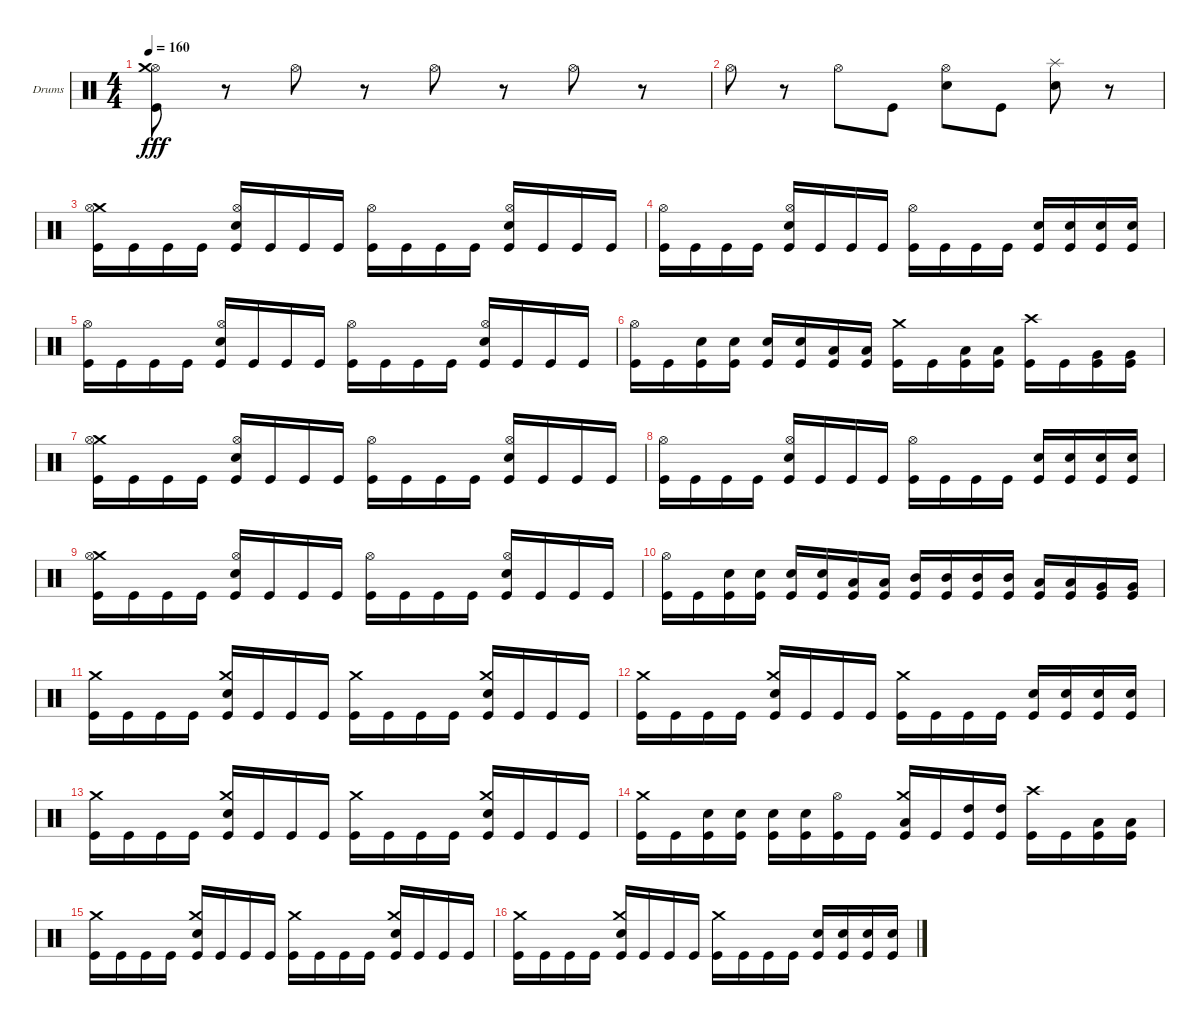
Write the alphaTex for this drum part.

\bracketExtendMode groupsimilarinstruments
\firstSystemTrackNameOrientation horizontal
\otherSystemsTrackNameOrientation horizontal
\track ("Drums" "Drums") {instrument percussion}
\staff {score}
\articulation defaults
\ts (4 4)
\tempo 160
\clef neutral
\ks c
("Kick (hit)" "Hi-Hat (open)" "Crash medium (hit)").8{dy fff} r.8 "Hi-Hat (open)".8 r.8 "Hi-Hat (open)".8 r.8 "Hi-Hat (open)".8 r.8 |
"Hi-Hat (open)".8 r.8 "Hi-Hat (open)".8 "Kick (hit)".8 ("Hi-Hat (open)" "Snare (hit) 2").8 "Kick (hit)".8 ("Splash (hit)" "Snare (hit) 2").8 r.8 |
("Kick (hit)" "Crash medium (hit)" "Hi-Hat (open)").16 "Kick (hit)".16 "Kick (hit)".16 "Kick (hit)".16 ("Kick (hit)" "Snare (hit) 2" "Hi-Hat (open)").16 "Kick (hit)".16 "Kick (hit)".16 "Kick (hit)".16 ("Kick (hit)" "Hi-Hat (open)").16 "Kick (hit)".16 "Kick (hit)".16 "Kick (hit)".16 ("Kick (hit)" "Snare (hit) 2" "Hi-Hat (open)").16 "Kick (hit)".16 "Kick (hit)".16 "Kick (hit)".16 |
("Kick (hit)" "Hi-Hat (open)").16 "Kick (hit)".16 "Kick (hit)".16 "Kick (hit)".16 ("Kick (hit)" "Snare (hit) 2" "Hi-Hat (open)").16 "Kick (hit)".16 "Kick (hit)".16 "Kick (hit)".16 ("Kick (hit)" "Hi-Hat (open)").16 "Kick (hit)".16 "Kick (hit)".16 "Kick (hit)".16 ("Kick (hit)" "Snare (hit) 2").16 ("Kick (hit)" "Snare (hit) 2").16 ("Kick (hit)" "Snare (hit) 2").16 ("Kick (hit)" "Snare (hit) 2").16 |
("Hi-Hat (open)" "Kick (hit)").16 "Kick (hit)".16 "Kick (hit)".16 "Kick (hit)".16 ("Hi-Hat (open)" "Snare (hit) 2" "Kick (hit)").16 "Kick (hit)".16 "Kick (hit)".16 "Kick (hit)".16 ("Hi-Hat (open)" "Kick (hit)").16 "Kick (hit)".16 "Kick (hit)".16 "Kick (hit)".16 ("Hi-Hat (open)" "Snare (hit) 2" "Kick (hit)").16 "Kick (hit)".16 "Kick (hit)".16 "Kick (hit)".16 |
("Hi-Hat (open)" "Kick (hit)").16 "Kick (hit)".16 ("Snare (hit) 2" "Kick (hit)").16 ("Snare (hit) 2" "Kick (hit)").16 ("Snare (hit) 2" "Kick (hit)").16 ("Snare (hit) 2" "Kick (hit)").16 ("Low Tom (hit)" "Kick (hit)").16 ("Low Tom (hit)" "Kick (hit)").16 ("Crash medium (hit)" "Kick (hit)").16 "Kick (hit)".16 ("Low Tom (hit)" "Kick (hit)").16 ("Low Tom (hit)" "Kick (hit)").16 ("Crash high (hit)" "Kick (hit)").16 "Kick (hit)".16 ("Very Low Tom (hit)" "Kick (hit)").16 ("Very Low Tom (hit)" "Kick (hit)").16 |
("Kick (hit)" "Crash medium (hit)" "Hi-Hat (open)").16 "Kick (hit)".16 "Kick (hit)".16 "Kick (hit)".16 ("Kick (hit)" "Snare (hit) 2" "Hi-Hat (open)").16 "Kick (hit)".16 "Kick (hit)".16 "Kick (hit)".16 ("Kick (hit)" "Hi-Hat (open)").16 "Kick (hit)".16 "Kick (hit)".16 "Kick (hit)".16 ("Kick (hit)" "Snare (hit) 2" "Hi-Hat (open)").16 "Kick (hit)".16 "Kick (hit)".16 "Kick (hit)".16 |
("Kick (hit)" "Hi-Hat (open)").16 "Kick (hit)".16 "Kick (hit)".16 "Kick (hit)".16 ("Kick (hit)" "Hi-Hat (open)" "Snare (hit) 2").16 "Kick (hit)".16 "Kick (hit)".16 "Kick (hit)".16 ("Kick (hit)" "Hi-Hat (open)").16 "Kick (hit)".16 "Kick (hit)".16 "Kick (hit)".16 ("Kick (hit)" "Snare (hit) 2").16 ("Kick (hit)" "Snare (hit) 2").16 ("Kick (hit)" "Snare (hit) 2").16 ("Kick (hit)" "Snare (hit) 2").16 |
("Kick (hit)" "Crash medium (hit)" "Hi-Hat (open)").16 "Kick (hit)".16 "Kick (hit)".16 "Kick (hit)".16 ("Kick (hit)" "Snare (hit) 2" "Hi-Hat (open)").16 "Kick (hit)".16 "Kick (hit)".16 "Kick (hit)".16 ("Kick (hit)" "Hi-Hat (open)").16 "Kick (hit)".16 "Kick (hit)".16 "Kick (hit)".16 ("Kick (hit)" "Snare (hit) 2" "Hi-Hat (open)").16 "Kick (hit)".16 "Kick (hit)".16 "Kick (hit)".16 |
("Kick (hit)" "Hi-Hat (open)").16 "Kick (hit)".16 ("Kick (hit)" "Snare (hit) 2").16 ("Kick (hit)" "Snare (hit) 2").16 ("Kick (hit)" "Snare (hit) 2").16 ("Kick (hit)" "Snare (hit) 2").16 ("Kick (hit)" "Low Tom (hit)").16 ("Kick (hit)" "Low Tom (hit)").16 ("Kick (hit)" "Mid Tom (hit)").16 ("Kick (hit)" "Mid Tom (hit)").16 ("Kick (hit)" "Mid Tom (hit)").16 ("Kick (hit)" "Mid Tom (hit)").16 ("Kick (hit)" "Low Tom (hit)").16 ("Kick (hit)" "Low Tom (hit)").16 ("Kick (hit)" "Very Low Tom (hit)").16 ("Kick (hit)" "Very Low Tom (hit)").16 |
("Kick (hit)" "Crash medium (hit)").16 "Kick (hit)".16 "Kick (hit)".16 "Kick (hit)".16 ("Kick (hit)" "Snare (hit) 2" "Crash medium (hit)").16 "Kick (hit)".16 "Kick (hit)".16 "Kick (hit)".16 ("Kick (hit)" "Crash medium (hit)").16 "Kick (hit)".16 "Kick (hit)".16 "Kick (hit)".16 ("Kick (hit)" "Snare (hit) 2" "Crash medium (hit)").16 "Kick (hit)".16 "Kick (hit)".16 "Kick (hit)".16 |
("Kick (hit)" "Crash medium (hit)").16 "Kick (hit)".16 "Kick (hit)".16 "Kick (hit)".16 ("Snare (hit) 2" "Kick (hit)" "Crash medium (hit)").16 "Kick (hit)".16 "Kick (hit)".16 "Kick (hit)".16 ("Kick (hit)" "Crash medium (hit)").16 "Kick (hit)".16 "Kick (hit)".16 "Kick (hit)".16 ("Kick (hit)" "Snare (hit) 2").16 ("Kick (hit)" "Snare (hit) 2").16 ("Kick (hit)" "Snare (hit) 2").16 ("Kick (hit)" "Snare (hit) 2").16 |
("Crash medium (hit)" "Kick (hit)").16 "Kick (hit)".16 "Kick (hit)".16 "Kick (hit)".16 ("Crash medium (hit)" "Snare (hit) 2" "Kick (hit)").16 "Kick (hit)".16 "Kick (hit)".16 "Kick (hit)".16 ("Crash medium (hit)" "Kick (hit)").16 "Kick (hit)".16 "Kick (hit)".16 "Kick (hit)".16 ("Crash medium (hit)" "Snare (hit) 2" "Kick (hit)").16 "Kick (hit)".16 "Kick (hit)".16 "Kick (hit)".16 |
("Crash medium (hit)" "Kick (hit)").16 "Kick (hit)".16 ("Snare (hit) 2" "Kick (hit)").16 ("Snare (hit) 2" "Kick (hit)").16 ("Snare (hit) 2" "Kick (hit)").16 ("Snare (hit) 2" "Kick (hit)").16 ("Hi-Hat (open)" "Kick (hit)").16 "Kick (hit)".16 ("Crash medium (hit)" "Kick (hit)" "Low Tom (hit)").16 "Kick (hit)".16 ("High Tom (hit)" "Kick (hit)").16 ("High Tom (hit)" "Kick (hit)").16 ("Kick (hit)" "Crash high (hit)").16 "Kick (hit)".16 ("Low Tom (hit)" "Kick (hit)").16 ("Low Tom (hit)" "Kick (hit)").16 |
("Crash medium (hit)" "Kick (hit)").16 "Kick (hit)".16 "Kick (hit)".16 "Kick (hit)".16 ("Crash medium (hit)" "Snare (hit) 2" "Kick (hit)").16 "Kick (hit)".16 "Kick (hit)".16 "Kick (hit)".16 ("Crash medium (hit)" "Kick (hit)").16 "Kick (hit)".16 "Kick (hit)".16 "Kick (hit)".16 ("Crash medium (hit)" "Kick (hit)" "Snare (hit) 2").16 "Kick (hit)".16 "Kick (hit)".16 "Kick (hit)".16 |
("Crash medium (hit)" "Kick (hit)").16 "Kick (hit)".16 "Kick (hit)".16 "Kick (hit)".16 ("Crash medium (hit)" "Kick (hit)" "Snare (hit) 2").16 "Kick (hit)".16 "Kick (hit)".16 "Kick (hit)".16 ("Crash medium (hit)" "Kick (hit)").16 "Kick (hit)".16 "Kick (hit)".16 "Kick (hit)".16 ("Snare (hit) 2" "Kick (hit)").16 ("Snare (hit) 2" "Kick (hit)").16 ("Snare (hit) 2" "Kick (hit)").16 ("Snare (hit) 2" "Kick (hit)").16
